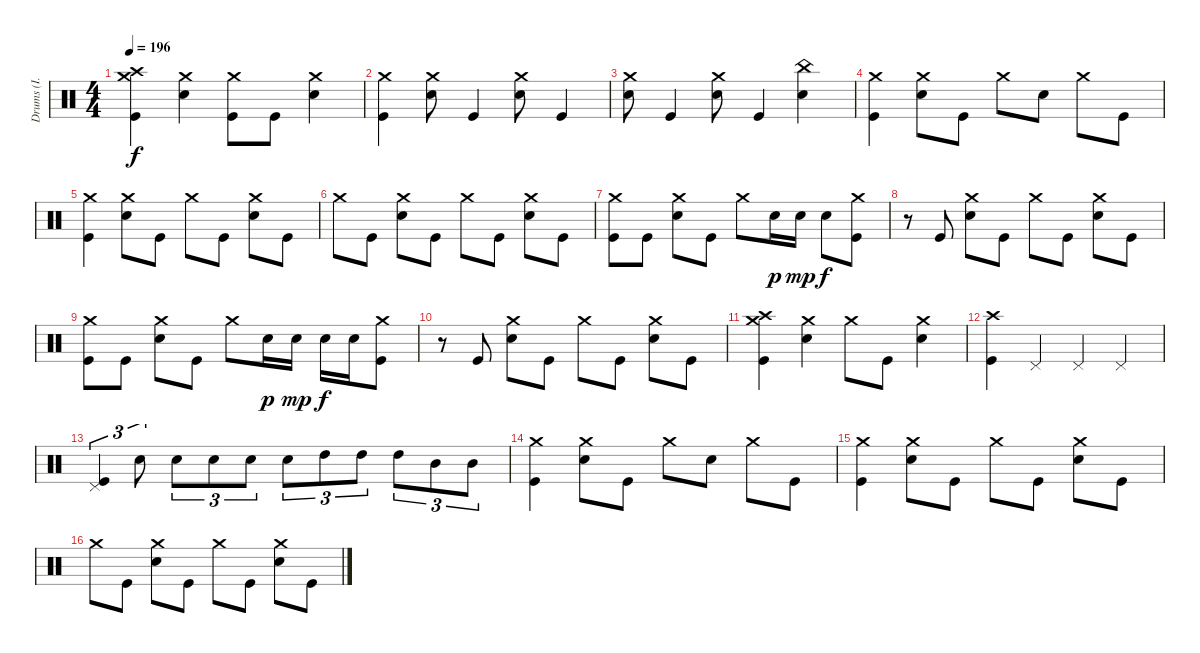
\track ("Drums (I. Paice)" "Drums (I. ") {instrument percussion}
\staff {score}
\articulation defaults
\ts (4 4)
\tempo 196
\clef neutral
\ks c
("Crash medium (hit)" "Crash high (hit)" "Kick (hit)").4{dy f} ("Crash medium (hit)" "Electric Snare (hit)").4 ("Crash medium (hit)" "Kick (hit)").8 "Kick (hit)".8 ("Crash medium (hit)" "Electric Snare (hit)").4 |
("Crash medium (hit)" "Kick (hit)").4 ("Crash medium (hit)" "Electric Snare (hit)").8 "Kick (hit)".4 ("Crash medium (hit)" "Electric Snare (hit)").8 "Kick (hit)".4 |
("Crash medium (hit)" "Electric Snare (hit)").8 "Kick (hit)".4 ("Crash medium (hit)" "Electric Snare (hit)").8 "Kick (hit)".4 ("China (hit)" "Electric Snare (hit)").4 |
("Crash medium (hit)" "Kick (hit)").4 ("Crash medium (hit)" "Electric Snare (hit)").8 "Kick (hit)".8 "Crash medium (hit)".8 "Electric Snare (hit)".8 "Crash medium (hit)".8 "Kick (hit)".8 |
("Crash medium (hit)" "Kick (hit)").4 ("Crash medium (hit)" "Electric Snare (hit)").8 "Kick (hit)".8 "Crash medium (hit)".8 "Kick (hit)".8 ("Crash medium (hit)" "Electric Snare (hit)").8 "Kick (hit)".8 |
"Crash medium (hit)".8 "Kick (hit)".8 ("Crash medium (hit)" "Electric Snare (hit)").8 "Kick (hit)".8 "Crash medium (hit)".8 "Kick (hit)".8 ("Crash medium (hit)" "Electric Snare (hit)").8 "Kick (hit)".8 |
("Crash medium (hit)" "Kick (hit)").8 "Kick (hit)".8 ("Crash medium (hit)" "Electric Snare (hit)").8 "Kick (hit)".8 "Crash medium (hit)".8 "Electric Snare (hit)".16{dy p} "Electric Snare (hit)".16{dy mp} "Electric Snare (hit)".8{dy f} ("Crash medium (hit)" "Kick (hit)").8 |
r.8 "Kick (hit)".8 ("Crash medium (hit)" "Electric Snare (hit)").8 "Kick (hit)".8 "Crash medium (hit)".8 "Kick (hit)".8 ("Crash medium (hit)" "Electric Snare (hit)").8 "Kick (hit)".8 |
("Crash medium (hit)" "Kick (hit)").8 "Kick (hit)".8 ("Crash medium (hit)" "Electric Snare (hit)").8 "Kick (hit)".8 "Crash medium (hit)".8 "Electric Snare (hit)".16{dy p} "Electric Snare (hit)".16{dy mp} "Electric Snare (hit)".16{dy f} "Electric Snare (hit)".16 ("Crash medium (hit)" "Kick (hit)").8 |
r.8 "Kick (hit)".8 ("Crash medium (hit)" "Electric Snare (hit)").8 "Kick (hit)".8 "Crash medium (hit)".8 "Kick (hit)".8 ("Crash medium (hit)" "Electric Snare (hit)").8 "Kick (hit)".8 |
("Crash medium (hit)" "Crash high (hit)" "Kick (hit)").4 ("Crash medium (hit)" "Electric Snare (hit)").4 "Crash medium (hit)".8 "Kick (hit)".8 ("Crash medium (hit)" "Electric Snare (hit)").4 |
("Crash high (hit)" "Kick (hit)").4 "Pedal Hi-Hat (hit)".4 "Pedal Hi-Hat (hit)".4 "Pedal Hi-Hat (hit)".4 |
("Pedal Hi-Hat (hit)" "Kick (hit)").4{tu (3 2)} "Electric Snare (hit)".8{tu (3 2)} "Electric Snare (hit)".8{tu (3 2)} "Electric Snare (hit)".8{tu (3 2)} "Electric Snare (hit)".8{tu (3 2)} "Electric Snare (hit)".8{tu (3 2)} "High Tom (hit)".8{tu (3 2)} "High Tom (hit)".8{tu (3 2)} "High Tom (hit)".8{tu (3 2)} "Mid Tom (hit)".8{tu (3 2)} "Mid Tom (hit)".8{tu (3 2)} |
("Crash medium (hit)" "Kick (hit)").4 ("Crash medium (hit)" "Electric Snare (hit)").8 "Kick (hit)".8 "Crash medium (hit)".8 "Electric Snare (hit)".8 "Crash medium (hit)".8 "Kick (hit)".8 |
("Crash medium (hit)" "Kick (hit)").4 ("Crash medium (hit)" "Electric Snare (hit)").8 "Kick (hit)".8 "Crash medium (hit)".8 "Kick (hit)".8 ("Crash medium (hit)" "Electric Snare (hit)").8 "Kick (hit)".8 |
"Crash medium (hit)".8 "Kick (hit)".8 ("Crash medium (hit)" "Electric Snare (hit)").8 "Kick (hit)".8 "Crash medium (hit)".8 "Kick (hit)".8 ("Crash medium (hit)" "Electric Snare (hit)").8 "Kick (hit)".8
